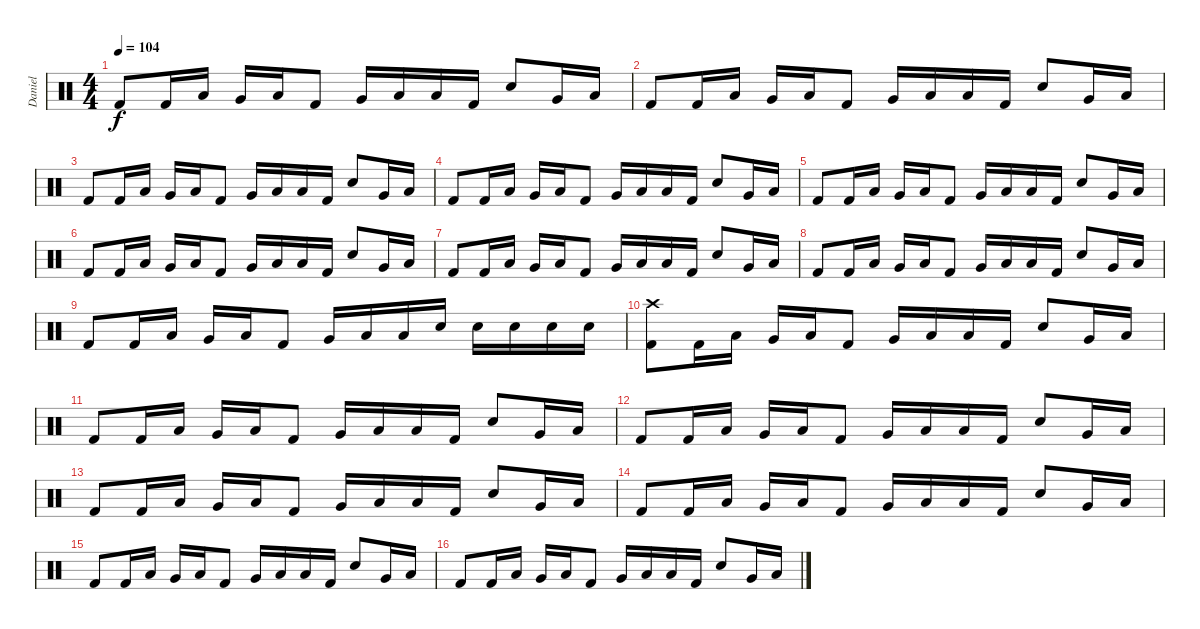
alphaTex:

\track ("Daniel" "Daniel") {instrument percussion}
\staff {score}
\articulation defaults
\ts (4 4)
\tempo 104
\clef neutral
\ks c "Kick (hit) 2".8{dy f volume 0} "Kick (hit) 2".16 "Low Tom (hit)".16 "Very Low Tom (hit)".16 "Low Tom (hit)".16 "Kick (hit) 2".8 "Very Low Tom (hit)".16 "Low Tom (hit)".16 "Low Floor Tom (hit)".16 "Kick (hit) 2".16 "Snare (hit) 2".8 "Very Low Tom (hit)".16 "Low Tom (hit)".16
|
"Kick (hit) 2".8{volume 6} "Kick (hit) 2".16 "Low Tom (hit)".16 "Very Low Tom (hit)".16 "Low Tom (hit)".16 "Kick (hit) 2".8 "Very Low Tom (hit)".16 "Low Tom (hit)".16 "Low Floor Tom (hit)".16 "Kick (hit) 2".16 "Snare (hit) 2".8 "Very Low Tom (hit)".16 "Low Tom (hit)".16 |
"Kick (hit) 2".8 "Kick (hit) 2".16 "Low Tom (hit)".16 "Very Low Tom (hit)".16 "Low Tom (hit)".16 "Kick (hit) 2".8 "Very Low Tom (hit)".16 "Low Tom (hit)".16 "Low Floor Tom (hit)".16 "Kick (hit) 2".16 "Snare (hit) 2".8 "Very Low Tom (hit)".16 "Low Tom (hit)".16 |
"Kick (hit) 2".8 "Kick (hit) 2".16 "Low Tom (hit)".16 "Very Low Tom (hit)".16 "Low Tom (hit)".16 "Kick (hit) 2".8 "Very Low Tom (hit)".16 "Low Tom (hit)".16 "Low Floor Tom (hit)".16 "Kick (hit) 2".16 "Snare (hit) 2".8 "Very Low Tom (hit)".16 "Low Tom (hit)".16 |
"Kick (hit) 2".8 "Kick (hit) 2".16 "Low Tom (hit)".16 "Very Low Tom (hit)".16 "Low Tom (hit)".16 "Kick (hit) 2".8 "Very Low Tom (hit)".16 "Low Tom (hit)".16 "Low Floor Tom (hit)".16 "Kick (hit) 2".16 "Snare (hit) 2".8 "Very Low Tom (hit)".16 "Low Tom (hit)".16 |
"Kick (hit) 2".8 "Kick (hit) 2".16 "Low Tom (hit)".16 "Very Low Tom (hit)".16 "Low Tom (hit)".16 "Kick (hit) 2".8 "Very Low Tom (hit)".16 "Low Tom (hit)".16 "Low Floor Tom (hit)".16 "Kick (hit) 2".16 "Snare (hit) 2".8 "Very Low Tom (hit)".16 "Low Tom (hit)".16 |
"Kick (hit) 2".8 "Kick (hit) 2".16 "Low Tom (hit)".16 "Very Low Tom (hit)".16 "Low Tom (hit)".16 "Kick (hit) 2".8 "Very Low Tom (hit)".16 "Low Tom (hit)".16 "Low Floor Tom (hit)".16 "Kick (hit) 2".16 "Snare (hit) 2".8 "Very Low Tom (hit)".16 "Low Tom (hit)".16 |
"Kick (hit) 2".8 "Kick (hit) 2".16 "Low Tom (hit)".16 "Very Low Tom (hit)".16 "Low Tom (hit)".16 "Kick (hit) 2".8 "Very Low Tom (hit)".16 "Low Tom (hit)".16 "Low Floor Tom (hit)".16 "Kick (hit) 2".16 "Snare (hit) 2".8 "Very Low Tom (hit)".16 "Low Tom (hit)".16 |
"Kick (hit) 2".8 "Kick (hit) 2".16 "Low Tom (hit)".16 "Very Low Tom (hit)".16 "Low Tom (hit)".16 "Kick (hit) 2".8 "Very Low Tom (hit)".16 "Low Tom (hit)".16 "Low Floor Tom (hit)".16 "Snare (hit) 2".16 "Snare (hit) 2".16 "Snare (hit) 2".16 "Snare (hit) 2".16 "Electric Snare (hit)".16 |
("Crash high (hit)" "Kick (hit) 2").8{volume 13} "Kick (hit) 2".16 "Low Tom (hit)".16 "Very Low Tom (hit)".16 "Low Tom (hit)".16 "Kick (hit) 2".8 "Very Low Tom (hit)".16 "Low Tom (hit)".16 "Low Floor Tom (hit)".16 "Kick (hit) 2".16 "Snare (hit) 2".8 "Very Low Tom (hit)".16 "Low Tom (hit)".16 |
"Kick (hit) 2".8 "Kick (hit) 2".16 "Low Tom (hit)".16 "Very Low Tom (hit)".16 "Low Tom (hit)".16 "Kick (hit) 2".8 "Very Low Tom (hit)".16 "Low Tom (hit)".16 "Low Floor Tom (hit)".16 "Kick (hit) 2".16 "Snare (hit) 2".8 "Very Low Tom (hit)".16 "Low Tom (hit)".16 |
"Kick (hit) 2".8 "Kick (hit) 2".16 "Low Tom (hit)".16 "Very Low Tom (hit)".16 "Low Tom (hit)".16 "Kick (hit) 2".8 "Very Low Tom (hit)".16 "Low Tom (hit)".16 "Low Floor Tom (hit)".16 "Kick (hit) 2".16 "Snare (hit) 2".8 "Very Low Tom (hit)".16 "Low Tom (hit)".16 |
"Kick (hit) 2".8 "Kick (hit) 2".16 "Low Tom (hit)".16 "Very Low Tom (hit)".16 "Low Tom (hit)".16 "Kick (hit) 2".8 "Very Low Tom (hit)".16 "Low Tom (hit)".16 "Low Floor Tom (hit)".16 "Kick (hit) 2".16 "Snare (hit) 2".8 "Very Low Tom (hit)".16 "Low Tom (hit)".16 |
"Kick (hit) 2".8 "Kick (hit) 2".16 "Low Tom (hit)".16 "Very Low Tom (hit)".16 "Low Tom (hit)".16 "Kick (hit) 2".8 "Very Low Tom (hit)".16 "Low Tom (hit)".16 "Low Floor Tom (hit)".16 "Kick (hit) 2".16 "Snare (hit) 2".8 "Very Low Tom (hit)".16 "Low Tom (hit)".16 |
"Kick (hit) 2".8 "Kick (hit) 2".16 "Low Tom (hit)".16 "Very Low Tom (hit)".16 "Low Tom (hit)".16 "Kick (hit) 2".8 "Very Low Tom (hit)".16 "Low Tom (hit)".16 "Low Floor Tom (hit)".16 "Kick (hit) 2".16 "Snare (hit) 2".8 "Very Low Tom (hit)".16 "Low Tom (hit)".16 |
"Kick (hit) 2".8 "Kick (hit) 2".16 "Low Tom (hit)".16 "Very Low Tom (hit)".16 "Low Tom (hit)".16 "Kick (hit) 2".8 "Very Low Tom (hit)".16 "Low Tom (hit)".16 "Low Floor Tom (hit)".16 "Kick (hit) 2".16 "Snare (hit) 2".8 "Very Low Tom (hit)".16 "Low Tom (hit)".16
